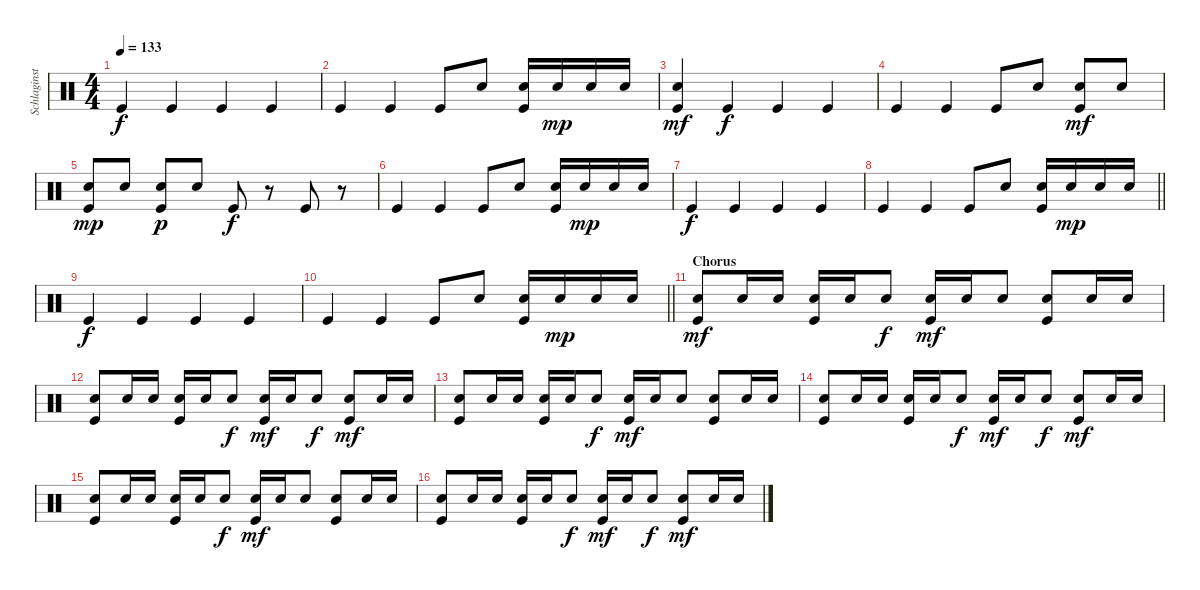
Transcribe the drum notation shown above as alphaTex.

\track ("Schlaginstrumente - Auswahl" "Schlaginst") {instrument percussion}
\staff {score}
\articulation defaults
\ts (4 4)
\tempo 133
\clef neutral
\ks c "Kick (hit)".4{dy f} "Kick (hit)".4 "Kick (hit)".4 "Kick (hit)".4
|
"Kick (hit)".4 "Kick (hit)".4 "Kick (hit)".8 "Snare (hit) 2".8 ("Snare (hit) 2" "Kick (hit)").16 "Snare (hit) 2".16{dy mp} "Snare (hit) 2".16 "Snare (hit) 2".16 |
("Snare (hit) 2" "Kick (hit)").4{dy mf} "Kick (hit)".4{dy f} "Kick (hit)".4 "Kick (hit)".4 |
"Kick (hit)".4 "Kick (hit)".4 "Kick (hit)".8 "Snare (hit) 2".8 ("Snare (hit) 2" "Kick (hit)").8{dy mf} "Snare (hit) 2".8 |
("Snare (hit) 2" "Kick (hit)").8{dy mp} "Snare (hit) 2".8 ("Snare (hit) 2" "Kick (hit)").8{dy p} "Snare (hit) 2".8 "Kick (hit)".8{dy f} r.8 "Kick (hit)".8 r.8 |
"Kick (hit)".4 "Kick (hit)".4 "Kick (hit)".8 "Snare (hit) 2".8 ("Snare (hit) 2" "Kick (hit)").16 "Snare (hit) 2".16{dy mp} "Snare (hit) 2".16 "Snare (hit) 2".16 |
"Kick (hit)".4{dy f} "Kick (hit)".4 "Kick (hit)".4 "Kick (hit)".4 |
\barLineRight lightlight "Kick (hit)".4 "Kick (hit)".4 "Kick (hit)".8 "Snare (hit) 2".8
("Snare (hit) 2" "Kick (hit)").16 "Snare (hit) 2".16{dy mp} "Snare (hit) 2".16 "Snare (hit) 2".16 |
"Kick (hit)".4{dy f} "Kick (hit)".4 "Kick (hit)".4 "Kick (hit)".4 |
\barLineRight lightlight "Kick (hit)".4 "Kick (hit)".4 "Kick (hit)".8 "Snare (hit) 2".8
("Snare (hit) 2" "Kick (hit)").16 "Snare (hit) 2".16{dy mp} "Snare (hit) 2".16 "Snare (hit) 2".16 |
\section ("" "Chorus")
("Snare (hit) 2" "Kick (hit)").8{dy mf} "Snare (hit) 2".16 "Snare (hit) 2".16 ("Snare (hit) 2" "Kick (hit)").16 "Snare (hit) 2".16 "Snare (hit) 2".8{dy f} ("Snare (hit) 2" "Kick (hit)").16{dy mf} "Snare (hit) 2".16 "Snare (hit) 2".8 ("Snare (hit) 2" "Kick (hit)").8 "Snare (hit) 2".16 "Snare (hit) 2".16 |
("Snare (hit) 2" "Kick (hit)").8 "Snare (hit) 2".16 "Snare (hit) 2".16 ("Snare (hit) 2" "Kick (hit)").16 "Snare (hit) 2".16 "Snare (hit) 2".8{dy f} ("Snare (hit) 2" "Kick (hit)").16{dy mf} "Snare (hit) 2".16 "Snare (hit) 2".8{dy f} ("Snare (hit) 2" "Kick (hit)").8{dy mf} "Snare (hit) 2".16 "Snare (hit) 2".16 |
("Snare (hit) 2" "Kick (hit)").8 "Snare (hit) 2".16 "Snare (hit) 2".16 ("Snare (hit) 2" "Kick (hit)").16 "Snare (hit) 2".16 "Snare (hit) 2".8{dy f} ("Snare (hit) 2" "Kick (hit)").16{dy mf} "Snare (hit) 2".16 "Snare (hit) 2".8 ("Snare (hit) 2" "Kick (hit)").8 "Snare (hit) 2".16 "Snare (hit) 2".16 |
("Snare (hit) 2" "Kick (hit)").8 "Snare (hit) 2".16 "Snare (hit) 2".16 ("Snare (hit) 2" "Kick (hit)").16 "Snare (hit) 2".16 "Snare (hit) 2".8{dy f} ("Snare (hit) 2" "Kick (hit)").16{dy mf} "Snare (hit) 2".16 "Snare (hit) 2".8{dy f} ("Snare (hit) 2" "Kick (hit)").8{dy mf} "Snare (hit) 2".16 "Snare (hit) 2".16 |
("Snare (hit) 2" "Kick (hit)").8 "Snare (hit) 2".16 "Snare (hit) 2".16 ("Snare (hit) 2" "Kick (hit)").16 "Snare (hit) 2".16 "Snare (hit) 2".8{dy f} ("Snare (hit) 2" "Kick (hit)").16{dy mf} "Snare (hit) 2".16 "Snare (hit) 2".8 ("Snare (hit) 2" "Kick (hit)").8 "Snare (hit) 2".16 "Snare (hit) 2".16 |
("Snare (hit) 2" "Kick (hit)").8 "Snare (hit) 2".16 "Snare (hit) 2".16 ("Snare (hit) 2" "Kick (hit)").16 "Snare (hit) 2".16 "Snare (hit) 2".8{dy f} ("Snare (hit) 2" "Kick (hit)").16{dy mf} "Snare (hit) 2".16 "Snare (hit) 2".8{dy f} ("Snare (hit) 2" "Kick (hit)").8{dy mf} "Snare (hit) 2".16 "Snare (hit) 2".16
